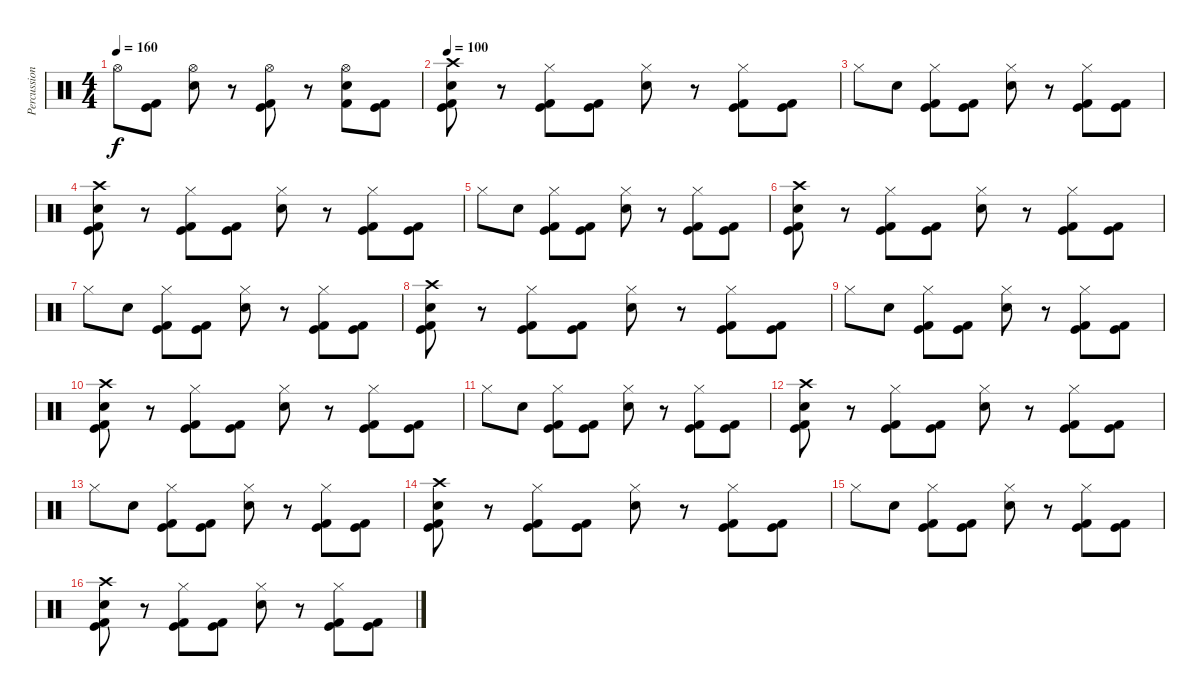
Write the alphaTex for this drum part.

\track ("Percussions" "Percussion") {instrument percussion}
\staff {score}
\articulation defaults
\ts (4 4)
\tempo 160
\clef neutral
\ks c "Hi-Hat (open)".8{dy f}
("Kick (hit) 2" "Kick (hit)").8 ("Snare (hit) 2" "Hi-Hat (open)").8 r.8 ("Kick (hit) 2" "Kick (hit)" "Hi-Hat (open)").8 r.8 ("Kick (hit) 2" "Snare (hit) 2" "Hi-Hat (open)").8 ("Kick (hit) 2" "Kick (hit)").8 |
\tempo 100
("Snare (hit) 2" "Kick (hit)" "Kick (hit) 2" "Crash high (hit)").8 r.8 ("Kick (hit)" "Kick (hit) 2" "Hi-Hat (closed)").8 ("Kick (hit)" "Kick (hit) 2").8 ("Snare (hit) 2" "Hi-Hat (closed)").8 r.8 ("Kick (hit)" "Kick (hit) 2" "Hi-Hat (closed)").8 ("Kick (hit)" "Kick (hit) 2").8 |
"Hi-Hat (closed)".8 "Snare (hit) 2".8 ("Kick (hit)" "Kick (hit) 2" "Hi-Hat (closed)").8 ("Kick (hit)" "Kick (hit) 2").8 ("Snare (hit) 2" "Hi-Hat (closed)").8 r.8 ("Kick (hit)" "Kick (hit) 2" "Hi-Hat (closed)").8 ("Kick (hit)" "Kick (hit) 2").8 |
("Snare (hit) 2" "Kick (hit)" "Kick (hit) 2" "Crash high (hit)").8 r.8 ("Kick (hit)" "Kick (hit) 2" "Hi-Hat (closed)").8 ("Kick (hit)" "Kick (hit) 2").8 ("Snare (hit) 2" "Hi-Hat (closed)").8 r.8 ("Kick (hit)" "Kick (hit) 2" "Hi-Hat (closed)").8 ("Kick (hit)" "Kick (hit) 2").8 |
"Hi-Hat (closed)".8 "Snare (hit) 2".8 ("Kick (hit)" "Kick (hit) 2" "Hi-Hat (closed)").8 ("Kick (hit)" "Kick (hit) 2").8 ("Snare (hit) 2" "Hi-Hat (closed)").8 r.8 ("Kick (hit)" "Kick (hit) 2" "Hi-Hat (closed)").8 ("Kick (hit)" "Kick (hit) 2").8 |
("Snare (hit) 2" "Kick (hit)" "Kick (hit) 2" "Crash high (hit)").8 r.8 ("Kick (hit)" "Kick (hit) 2" "Hi-Hat (closed)").8 ("Kick (hit)" "Kick (hit) 2").8 ("Snare (hit) 2" "Hi-Hat (closed)").8 r.8 ("Kick (hit)" "Kick (hit) 2" "Hi-Hat (closed)").8 ("Kick (hit)" "Kick (hit) 2").8 |
"Hi-Hat (closed)".8 "Snare (hit) 2".8 ("Kick (hit)" "Kick (hit) 2" "Hi-Hat (closed)").8 ("Kick (hit)" "Kick (hit) 2").8 ("Snare (hit) 2" "Hi-Hat (closed)").8 r.8 ("Kick (hit)" "Kick (hit) 2" "Hi-Hat (closed)").8 ("Kick (hit)" "Kick (hit) 2").8 |
("Snare (hit) 2" "Kick (hit)" "Kick (hit) 2" "Crash high (hit)").8 r.8 ("Kick (hit)" "Kick (hit) 2" "Hi-Hat (closed)").8 ("Kick (hit)" "Kick (hit) 2").8 ("Snare (hit) 2" "Hi-Hat (closed)").8 r.8 ("Kick (hit)" "Kick (hit) 2" "Hi-Hat (closed)").8 ("Kick (hit)" "Kick (hit) 2").8 |
"Hi-Hat (closed)".8 "Snare (hit) 2".8 ("Kick (hit)" "Kick (hit) 2" "Hi-Hat (closed)").8 ("Kick (hit)" "Kick (hit) 2").8 ("Snare (hit) 2" "Hi-Hat (closed)").8 r.8 ("Kick (hit)" "Kick (hit) 2" "Hi-Hat (closed)").8 ("Kick (hit)" "Kick (hit) 2").8 |
("Snare (hit) 2" "Kick (hit)" "Kick (hit) 2" "Crash high (hit)").8 r.8 ("Kick (hit)" "Kick (hit) 2" "Hi-Hat (closed)").8 ("Kick (hit)" "Kick (hit) 2").8 ("Snare (hit) 2" "Hi-Hat (closed)").8 r.8 ("Kick (hit)" "Kick (hit) 2" "Hi-Hat (closed)").8 ("Kick (hit)" "Kick (hit) 2").8 |
"Hi-Hat (closed)".8 "Snare (hit) 2".8 ("Kick (hit)" "Kick (hit) 2" "Hi-Hat (closed)").8 ("Kick (hit)" "Kick (hit) 2").8 ("Snare (hit) 2" "Hi-Hat (closed)").8 r.8 ("Kick (hit)" "Kick (hit) 2" "Hi-Hat (closed)").8 ("Kick (hit)" "Kick (hit) 2").8 |
("Snare (hit) 2" "Kick (hit)" "Kick (hit) 2" "Crash high (hit)").8 r.8 ("Kick (hit)" "Kick (hit) 2" "Hi-Hat (closed)").8 ("Kick (hit)" "Kick (hit) 2").8 ("Snare (hit) 2" "Hi-Hat (closed)").8 r.8 ("Kick (hit)" "Kick (hit) 2" "Hi-Hat (closed)").8 ("Kick (hit)" "Kick (hit) 2").8 |
"Hi-Hat (closed)".8 "Snare (hit) 2".8 ("Kick (hit)" "Kick (hit) 2" "Hi-Hat (closed)").8 ("Kick (hit)" "Kick (hit) 2").8 ("Snare (hit) 2" "Hi-Hat (closed)").8 r.8 ("Kick (hit)" "Kick (hit) 2" "Hi-Hat (closed)").8 ("Kick (hit)" "Kick (hit) 2").8 |
("Snare (hit) 2" "Kick (hit)" "Kick (hit) 2" "Crash high (hit)").8 r.8 ("Kick (hit)" "Kick (hit) 2" "Hi-Hat (closed)").8 ("Kick (hit)" "Kick (hit) 2").8 ("Snare (hit) 2" "Hi-Hat (closed)").8 r.8 ("Kick (hit)" "Kick (hit) 2" "Hi-Hat (closed)").8 ("Kick (hit)" "Kick (hit) 2").8 |
"Hi-Hat (closed)".8 "Snare (hit) 2".8 ("Kick (hit)" "Kick (hit) 2" "Hi-Hat (closed)").8 ("Kick (hit)" "Kick (hit) 2").8 ("Snare (hit) 2" "Hi-Hat (closed)").8 r.8 ("Kick (hit)" "Kick (hit) 2" "Hi-Hat (closed)").8 ("Kick (hit)" "Kick (hit) 2").8 |
("Snare (hit) 2" "Kick (hit)" "Kick (hit) 2" "Crash high (hit)").8 r.8 ("Kick (hit)" "Kick (hit) 2" "Hi-Hat (closed)").8 ("Kick (hit)" "Kick (hit) 2").8 ("Snare (hit) 2" "Hi-Hat (closed)").8 r.8 ("Kick (hit)" "Kick (hit) 2" "Hi-Hat (closed)").8 ("Kick (hit)" "Kick (hit) 2").8
